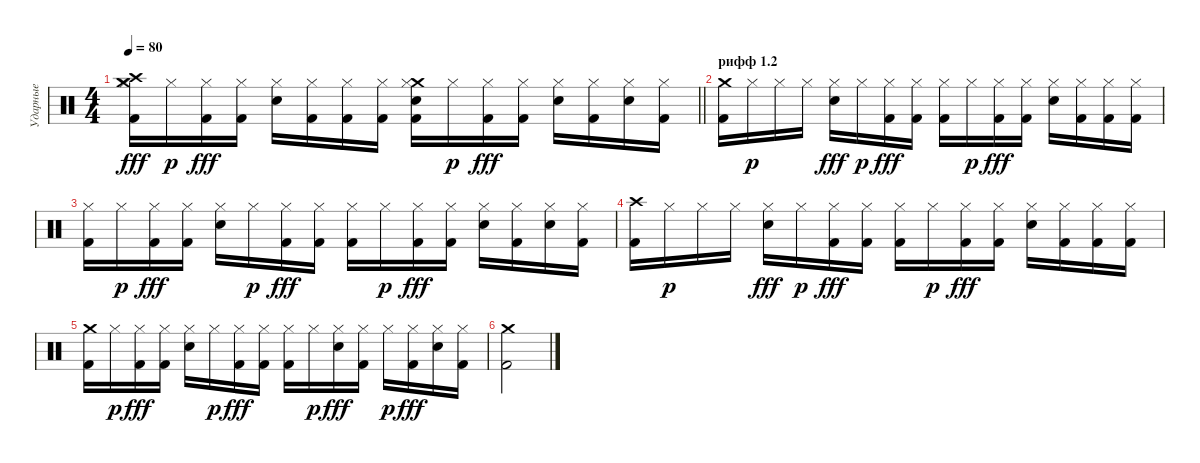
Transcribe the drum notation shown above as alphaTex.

\track ("Ударные" "Ударные") {instrument percussion}
\staff {score}
\articulation defaults
\ts (4 4)
\tempo 80
\clef neutral
\barLineRight lightlight
\ks c
("Crash high (hit)" "Crash medium (hit)" "Hi-Hat (closed)" "Kick (hit) 2").16{dy fff} "Hi-Hat (closed)".16{dy p} ("Hi-Hat (closed)" "Kick (hit) 2").16{dy fff} ("Hi-Hat (closed)" "Kick (hit) 2").16 ("Hi-Hat (closed)" "Snare (hit) 2").16 ("Hi-Hat (closed)" "Kick (hit) 2").16 ("Hi-Hat (closed)" "Kick (hit) 2").16 ("Hi-Hat (closed)" "Kick (hit) 2").16 ("Crash medium (hit)" "Hi-Hat (closed)" "Snare (hit) 2" "Kick (hit) 2").16 "Hi-Hat (closed)".16{dy p} ("Hi-Hat (closed)" "Kick (hit) 2").16{dy fff} ("Hi-Hat (closed)" "Kick (hit) 2").16 ("Hi-Hat (closed)" "Snare (hit) 2").16 ("Hi-Hat (closed)" "Kick (hit) 2").16 ("Hi-Hat (closed)" "Snare (hit) 2").16 ("Hi-Hat (closed)" "Kick (hit) 2").16 |
\section ("" "рифф 1.2")
("Crash medium (hit)" "Kick (hit) 2").16 "Hi-Hat (closed)".16{dy p} "Hi-Hat (closed)".16 "Hi-Hat (closed)".16 ("Hi-Hat (closed)" "Snare (hit) 2").16{dy fff} "Hi-Hat (closed)".16{dy p} ("Hi-Hat (closed)" "Kick (hit) 2").16{dy fff} ("Hi-Hat (closed)" "Kick (hit) 2").16 ("Hi-Hat (closed)" "Kick (hit) 2").16 "Hi-Hat (closed)".16{dy p} ("Hi-Hat (closed)" "Kick (hit) 2").16{dy fff} ("Hi-Hat (closed)" "Kick (hit) 2").16 ("Hi-Hat (closed)" "Snare (hit) 2").16 ("Hi-Hat (closed)" "Kick (hit) 2").16 ("Hi-Hat (closed)" "Kick (hit) 2").16 ("Hi-Hat (closed)" "Kick (hit) 2").16 |
("Hi-Hat (closed)" "Kick (hit) 2").16 "Hi-Hat (closed)".16{dy p} ("Hi-Hat (closed)" "Kick (hit) 2").16{dy fff} ("Hi-Hat (closed)" "Kick (hit) 2").16 ("Hi-Hat (closed)" "Snare (hit) 2").16 "Hi-Hat (closed)".16{dy p} ("Hi-Hat (closed)" "Kick (hit) 2").16{dy fff} ("Hi-Hat (closed)" "Kick (hit) 2").16 ("Hi-Hat (closed)" "Kick (hit) 2").16 "Hi-Hat (closed)".16{dy p} ("Hi-Hat (closed)" "Kick (hit) 2").16{dy fff} ("Hi-Hat (closed)" "Kick (hit) 2").16 ("Hi-Hat (closed)" "Snare (hit) 2").16 ("Hi-Hat (closed)" "Kick (hit) 2").16 ("Hi-Hat (closed)" "Snare (hit) 2").16 ("Hi-Hat (closed)" "Kick (hit) 2").16 |
("Crash high (hit)" "Kick (hit) 2").16 "Hi-Hat (closed)".16{dy p} "Hi-Hat (closed)".16 "Hi-Hat (closed)".16 ("Hi-Hat (closed)" "Snare (hit) 2").16{dy fff} "Hi-Hat (closed)".16{dy p} ("Hi-Hat (closed)" "Kick (hit) 2").16{dy fff} ("Hi-Hat (closed)" "Kick (hit) 2").16 ("Hi-Hat (closed)" "Kick (hit) 2").16 "Hi-Hat (closed)".16{dy p} ("Hi-Hat (closed)" "Kick (hit) 2").16{dy fff} ("Hi-Hat (closed)" "Kick (hit) 2").16 ("Hi-Hat (closed)" "Snare (hit) 2").16 ("Hi-Hat (closed)" "Kick (hit) 2").16 ("Hi-Hat (closed)" "Kick (hit) 2").16 ("Hi-Hat (closed)" "Kick (hit) 2").16 |
("Crash medium (hit)" "Kick (hit) 2").16 "Hi-Hat (closed)".16{dy p} ("Hi-Hat (closed)" "Kick (hit) 2").16{dy fff} ("Hi-Hat (closed)" "Kick (hit) 2").16 ("Hi-Hat (closed)" "Snare (hit) 2").16 "Hi-Hat (closed)".16{dy p} ("Hi-Hat (closed)" "Kick (hit) 2").16{dy fff} ("Hi-Hat (closed)" "Kick (hit) 2").16 ("Hi-Hat (closed)" "Kick (hit) 2").16 "Hi-Hat (closed)".16{dy p} ("Hi-Hat (closed)" "Snare (hit) 2").16{dy fff} ("Hi-Hat (closed)" "Kick (hit) 2").16 "Hi-Hat (closed)".16{dy p} ("Hi-Hat (closed)" "Kick (hit) 2").16{dy fff} ("Hi-Hat (closed)" "Snare (hit) 2").16 ("Hi-Hat (closed)" "Kick (hit) 2").16 |
("Crash medium (hit)" "Kick (hit) 2").2
